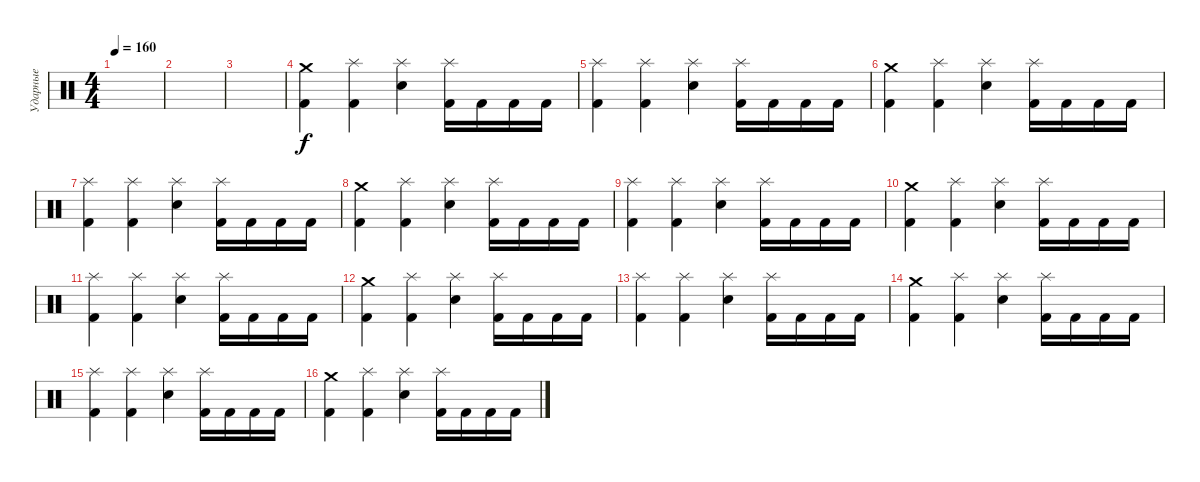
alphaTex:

\track ("Ударные" "Ударные") {instrument percussion}
\staff {score}
\articulation defaults
\ts (4 4)
\tempo 160
\clef neutral
\ks c
|
|
|
("Crash medium (hit)" "Kick (hit) 2").4 ("Splash (hit)" "Kick (hit) 2").4 ("Splash (hit)" "Electric Snare (hit)").4 ("Splash (hit)" "Kick (hit) 2").16 "Kick (hit) 2".16 "Kick (hit) 2".16 "Kick (hit) 2".16 |
("Splash (hit)" "Kick (hit) 2").4 ("Splash (hit)" "Kick (hit) 2").4 ("Splash (hit)" "Electric Snare (hit)").4 ("Splash (hit)" "Kick (hit) 2").16 "Kick (hit) 2".16 "Kick (hit) 2".16 "Kick (hit) 2".16 |
("Crash medium (hit)" "Kick (hit) 2").4 ("Splash (hit)" "Kick (hit) 2").4 ("Splash (hit)" "Electric Snare (hit)").4 ("Splash (hit)" "Kick (hit) 2").16 "Kick (hit) 2".16 "Kick (hit) 2".16 "Kick (hit) 2".16 |
("Splash (hit)" "Kick (hit) 2").4 ("Splash (hit)" "Kick (hit) 2").4 ("Splash (hit)" "Electric Snare (hit)").4 ("Splash (hit)" "Kick (hit) 2").16 "Kick (hit) 2".16 "Kick (hit) 2".16 "Kick (hit) 2".16 |
("Crash medium (hit)" "Kick (hit) 2").4 ("Splash (hit)" "Kick (hit) 2").4 ("Splash (hit)" "Electric Snare (hit)").4 ("Splash (hit)" "Kick (hit) 2").16 "Kick (hit) 2".16 "Kick (hit) 2".16 "Kick (hit) 2".16 |
("Splash (hit)" "Kick (hit) 2").4 ("Splash (hit)" "Kick (hit) 2").4 ("Splash (hit)" "Electric Snare (hit)").4 ("Splash (hit)" "Kick (hit) 2").16 "Kick (hit) 2".16 "Kick (hit) 2".16 "Kick (hit) 2".16 |
("Crash medium (hit)" "Kick (hit) 2").4 ("Splash (hit)" "Kick (hit) 2").4 ("Splash (hit)" "Electric Snare (hit)").4 ("Splash (hit)" "Kick (hit) 2").16 "Kick (hit) 2".16 "Kick (hit) 2".16 "Kick (hit) 2".16 |
("Splash (hit)" "Kick (hit) 2").4 ("Splash (hit)" "Kick (hit) 2").4 ("Splash (hit)" "Electric Snare (hit)").4 ("Splash (hit)" "Kick (hit) 2").16 "Kick (hit) 2".16 "Kick (hit) 2".16 "Kick (hit) 2".16 |
("Crash medium (hit)" "Kick (hit) 2").4 ("Splash (hit)" "Kick (hit) 2").4 ("Splash (hit)" "Electric Snare (hit)").4 ("Splash (hit)" "Kick (hit) 2").16 "Kick (hit) 2".16 "Kick (hit) 2".16 "Kick (hit) 2".16 |
("Splash (hit)" "Kick (hit) 2").4 ("Splash (hit)" "Kick (hit) 2").4 ("Splash (hit)" "Electric Snare (hit)").4 ("Splash (hit)" "Kick (hit) 2").16 "Kick (hit) 2".16 "Kick (hit) 2".16 "Kick (hit) 2".16 |
("Crash medium (hit)" "Kick (hit) 2").4 ("Splash (hit)" "Kick (hit) 2").4 ("Splash (hit)" "Electric Snare (hit)").4 ("Splash (hit)" "Kick (hit) 2").16 "Kick (hit) 2".16 "Kick (hit) 2".16 "Kick (hit) 2".16 |
("Splash (hit)" "Kick (hit) 2").4 ("Splash (hit)" "Kick (hit) 2").4 ("Splash (hit)" "Electric Snare (hit)").4 ("Splash (hit)" "Kick (hit) 2").16 "Kick (hit) 2".16 "Kick (hit) 2".16 "Kick (hit) 2".16 |
("Crash medium (hit)" "Kick (hit) 2").4 ("Splash (hit)" "Kick (hit) 2").4 ("Splash (hit)" "Electric Snare (hit)").4 ("Splash (hit)" "Kick (hit) 2").16 "Kick (hit) 2".16 "Kick (hit) 2".16 "Kick (hit) 2".16
